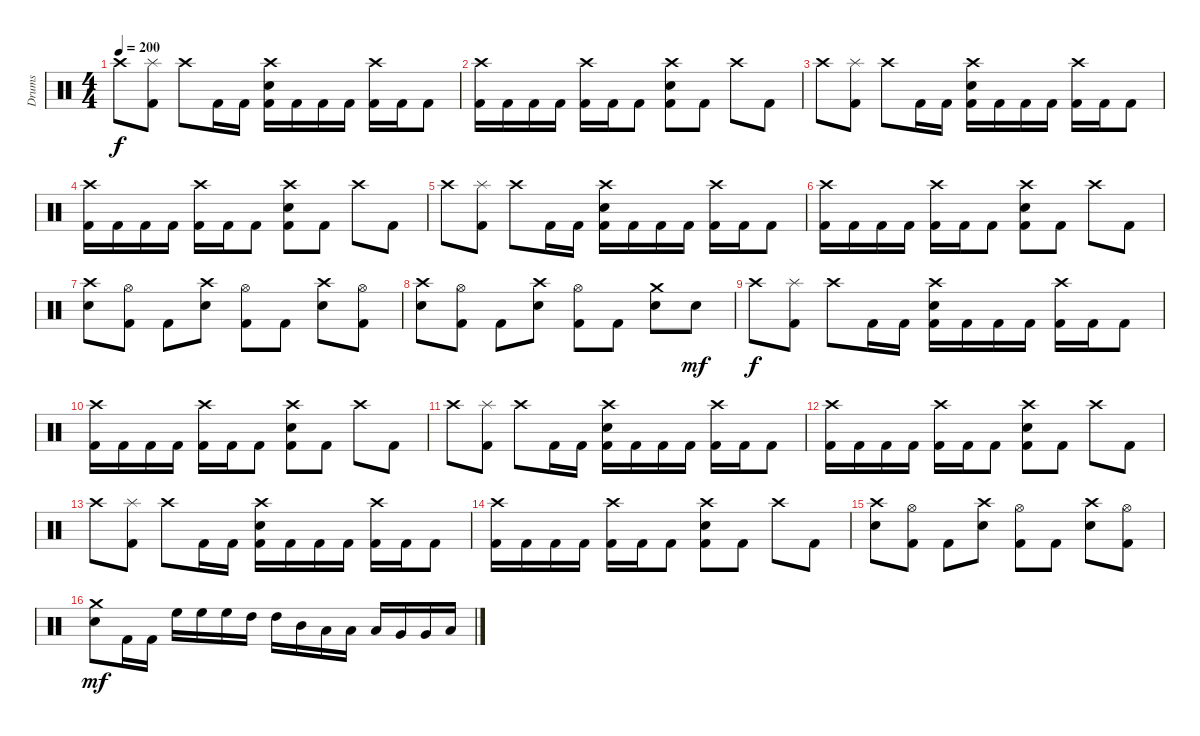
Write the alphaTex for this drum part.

\track ("Drums" "Drums") {instrument percussion}
\staff {score}
\articulation defaults
\ts (4 4)
\tempo 200
\clef neutral
\ks c "Crash high (hit)".8{dy f}
("Splash (hit)" "Kick (hit) 2").8 "Crash high (hit)".8 "Kick (hit) 2".16 "Kick (hit) 2".16 ("Crash high (hit)" "Electric Snare (hit)" "Kick (hit) 2").16 "Kick (hit) 2".16 "Kick (hit) 2".16 "Kick (hit) 2".16 ("Crash high (hit)" "Kick (hit) 2").16 "Kick (hit) 2".16 "Kick (hit) 2".8 |
("Crash high (hit)" "Kick (hit) 2").16 "Kick (hit) 2".16 "Kick (hit) 2".16 "Kick (hit) 2".16 ("Crash high (hit)" "Kick (hit) 2").16 "Kick (hit) 2".16 "Kick (hit) 2".8 ("Crash high (hit)" "Electric Snare (hit)" "Kick (hit) 2").8 "Kick (hit) 2".8 "Crash high (hit)".8 "Kick (hit) 2".8 |
"Crash high (hit)".8 ("Splash (hit)" "Kick (hit) 2").8 "Crash high (hit)".8 "Kick (hit) 2".16 "Kick (hit) 2".16 ("Crash high (hit)" "Electric Snare (hit)" "Kick (hit) 2").16 "Kick (hit) 2".16 "Kick (hit) 2".16 "Kick (hit) 2".16 ("Crash high (hit)" "Kick (hit) 2").16 "Kick (hit) 2".16 "Kick (hit) 2".8 |
("Crash high (hit)" "Kick (hit) 2").16 "Kick (hit) 2".16 "Kick (hit) 2".16 "Kick (hit) 2".16 ("Crash high (hit)" "Kick (hit) 2").16 "Kick (hit) 2".16 "Kick (hit) 2".8 ("Crash high (hit)" "Electric Snare (hit)" "Kick (hit) 2").8 "Kick (hit) 2".8 "Crash high (hit)".8 "Kick (hit) 2".8 |
"Crash high (hit)".8 ("Splash (hit)" "Kick (hit) 2").8 "Crash high (hit)".8 "Kick (hit) 2".16 "Kick (hit) 2".16 ("Crash high (hit)" "Electric Snare (hit)" "Kick (hit) 2").16 "Kick (hit) 2".16 "Kick (hit) 2".16 "Kick (hit) 2".16 ("Crash high (hit)" "Kick (hit) 2").16 "Kick (hit) 2".16 "Kick (hit) 2".8 |
("Crash high (hit)" "Kick (hit) 2").16 "Kick (hit) 2".16 "Kick (hit) 2".16 "Kick (hit) 2".16 ("Crash high (hit)" "Kick (hit) 2").16 "Kick (hit) 2".16 "Kick (hit) 2".8 ("Crash high (hit)" "Electric Snare (hit)" "Kick (hit) 2").8 "Kick (hit) 2".8 "Crash high (hit)".8 "Kick (hit) 2".8 |
("Crash high (hit)" "Electric Snare (hit)").8 ("Hi-Hat (open)" "Kick (hit) 2").8 "Kick (hit) 2".8 ("Crash high (hit)" "Electric Snare (hit)").8 ("Hi-Hat (open)" "Kick (hit) 2").8 "Kick (hit) 2".8 ("Crash high (hit)" "Electric Snare (hit)").8 ("Hi-Hat (open)" "Kick (hit) 2").8 |
("Crash high (hit)" "Electric Snare (hit)").8 ("Hi-Hat (open)" "Kick (hit) 2").8 "Kick (hit) 2".8 ("Crash high (hit)" "Electric Snare (hit)").8 ("Hi-Hat (open)" "Kick (hit) 2").8 "Kick (hit) 2".8 ("Crash medium (hit)" "Electric Snare (hit)").8 "Electric Snare (hit)".8{dy mf} |
"Crash high (hit)".8{dy f} ("Splash (hit)" "Kick (hit) 2").8 "Crash high (hit)".8 "Kick (hit) 2".16 "Kick (hit) 2".16 ("Crash high (hit)" "Electric Snare (hit)" "Kick (hit) 2").16 "Kick (hit) 2".16 "Kick (hit) 2".16 "Kick (hit) 2".16 ("Crash high (hit)" "Kick (hit) 2").16 "Kick (hit) 2".16 "Kick (hit) 2".8 |
("Crash high (hit)" "Kick (hit) 2").16 "Kick (hit) 2".16 "Kick (hit) 2".16 "Kick (hit) 2".16 ("Crash high (hit)" "Kick (hit) 2").16 "Kick (hit) 2".16 "Kick (hit) 2".8 ("Crash high (hit)" "Electric Snare (hit)" "Kick (hit) 2").8 "Kick (hit) 2".8 "Crash high (hit)".8 "Kick (hit) 2".8 |
"Crash high (hit)".8 ("Splash (hit)" "Kick (hit) 2").8 "Crash high (hit)".8 "Kick (hit) 2".16 "Kick (hit) 2".16 ("Crash high (hit)" "Electric Snare (hit)" "Kick (hit) 2").16 "Kick (hit) 2".16 "Kick (hit) 2".16 "Kick (hit) 2".16 ("Crash high (hit)" "Kick (hit) 2").16 "Kick (hit) 2".16 "Kick (hit) 2".8 |
("Crash high (hit)" "Kick (hit) 2").16 "Kick (hit) 2".16 "Kick (hit) 2".16 "Kick (hit) 2".16 ("Crash high (hit)" "Kick (hit) 2").16 "Kick (hit) 2".16 "Kick (hit) 2".8 ("Crash high (hit)" "Electric Snare (hit)" "Kick (hit) 2").8 "Kick (hit) 2".8 "Crash high (hit)".8 "Kick (hit) 2".8 |
"Crash high (hit)".8 ("Splash (hit)" "Kick (hit) 2").8 "Crash high (hit)".8 "Kick (hit) 2".16 "Kick (hit) 2".16 ("Crash high (hit)" "Electric Snare (hit)" "Kick (hit) 2").16 "Kick (hit) 2".16 "Kick (hit) 2".16 "Kick (hit) 2".16 ("Crash high (hit)" "Kick (hit) 2").16 "Kick (hit) 2".16 "Kick (hit) 2".8 |
("Crash high (hit)" "Kick (hit) 2").16 "Kick (hit) 2".16 "Kick (hit) 2".16 "Kick (hit) 2".16 ("Crash high (hit)" "Kick (hit) 2").16 "Kick (hit) 2".16 "Kick (hit) 2".8 ("Crash high (hit)" "Electric Snare (hit)" "Kick (hit) 2").8 "Kick (hit) 2".8 "Crash high (hit)".8 "Kick (hit) 2".8 |
("Crash high (hit)" "Electric Snare (hit)").8 ("Hi-Hat (open)" "Kick (hit) 2").8 "Kick (hit) 2".8 ("Crash high (hit)" "Electric Snare (hit)").8 ("Hi-Hat (open)" "Kick (hit) 2").8 "Kick (hit) 2".8 ("Crash high (hit)" "Electric Snare (hit)").8 ("Hi-Hat (open)" "Kick (hit) 2").8 |
("Crash medium (hit)" "Electric Snare (hit)").8{dy mf} "Kick (hit) 2".16 "Kick (hit) 2".16 "High Floor Tom (hit)".16 "High Floor Tom (hit)".16 "High Floor Tom (hit)".16 "High Tom (hit)".16 "High Tom (hit)".16 "Mid Tom (hit)".16 "Low Tom (hit)".16 "Low Tom (hit)".16 "Low Tom (hit)".16 "Very Low Tom (hit)".16 "Very Low Tom (hit)".16 "Low Floor Tom (hit)".16
